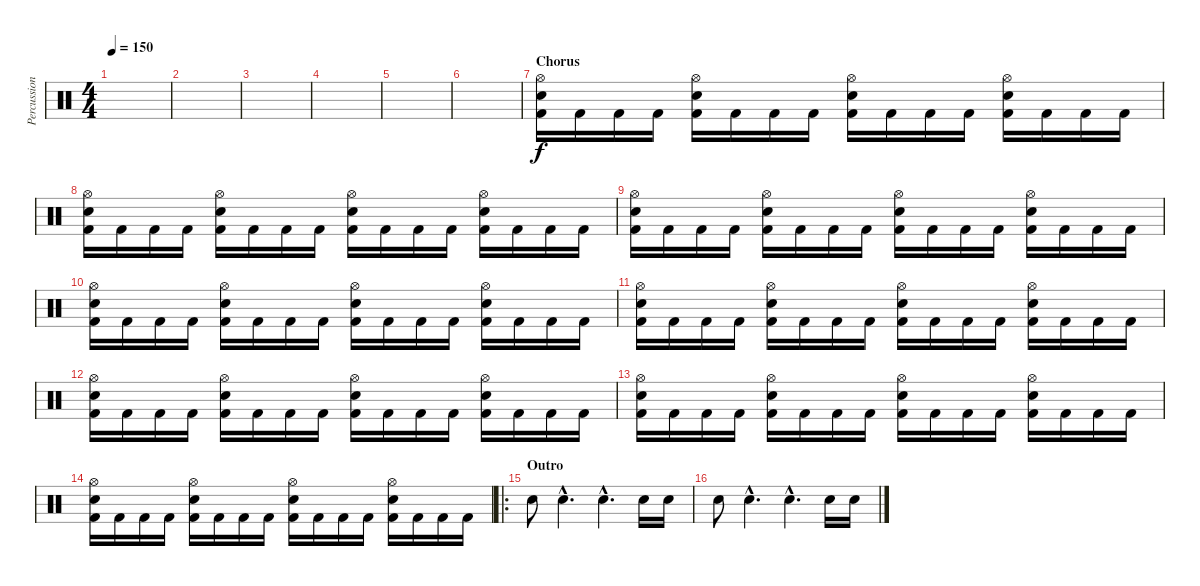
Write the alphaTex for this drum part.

\track ("Percussion" "Percussion") {instrument percussion}
\staff {score}
\articulation defaults
\ts (4 4)
\tempo 150
\clef neutral
\ks c
|
|
|
|
|
|
\section ("" "Chorus")
("Hi-Hat (open)" "Snare (hit) 2" "Kick (hit) 2").16 "Kick (hit) 2".16 "Kick (hit) 2".16 "Kick (hit) 2".16 ("Hi-Hat (open)" "Snare (hit) 2" "Kick (hit) 2").16 "Kick (hit) 2".16 "Kick (hit) 2".16 "Kick (hit) 2".16 ("Hi-Hat (open)" "Snare (hit) 2" "Kick (hit) 2").16 "Kick (hit) 2".16 "Kick (hit) 2".16 "Kick (hit) 2".16 ("Hi-Hat (open)" "Snare (hit) 2" "Kick (hit) 2").16 "Kick (hit) 2".16 "Kick (hit) 2".16 "Kick (hit) 2".16 |
("Hi-Hat (open)" "Snare (hit) 2" "Kick (hit) 2").16 "Kick (hit) 2".16 "Kick (hit) 2".16 "Kick (hit) 2".16 ("Hi-Hat (open)" "Snare (hit) 2" "Kick (hit) 2").16 "Kick (hit) 2".16 "Kick (hit) 2".16 "Kick (hit) 2".16 ("Hi-Hat (open)" "Snare (hit) 2" "Kick (hit) 2").16 "Kick (hit) 2".16 "Kick (hit) 2".16 "Kick (hit) 2".16 ("Hi-Hat (open)" "Snare (hit) 2" "Kick (hit) 2").16 "Kick (hit) 2".16 "Kick (hit) 2".16 "Kick (hit) 2".16 |
("Hi-Hat (open)" "Snare (hit) 2" "Kick (hit) 2").16 "Kick (hit) 2".16 "Kick (hit) 2".16 "Kick (hit) 2".16 ("Hi-Hat (open)" "Snare (hit) 2" "Kick (hit) 2").16 "Kick (hit) 2".16 "Kick (hit) 2".16 "Kick (hit) 2".16 ("Hi-Hat (open)" "Snare (hit) 2" "Kick (hit) 2").16 "Kick (hit) 2".16 "Kick (hit) 2".16 "Kick (hit) 2".16 ("Hi-Hat (open)" "Snare (hit) 2" "Kick (hit) 2").16 "Kick (hit) 2".16 "Kick (hit) 2".16 "Kick (hit) 2".16 |
("Hi-Hat (open)" "Snare (hit) 2" "Kick (hit) 2").16 "Kick (hit) 2".16 "Kick (hit) 2".16 "Kick (hit) 2".16 ("Hi-Hat (open)" "Snare (hit) 2" "Kick (hit) 2").16 "Kick (hit) 2".16 "Kick (hit) 2".16 "Kick (hit) 2".16 ("Hi-Hat (open)" "Snare (hit) 2" "Kick (hit) 2").16 "Kick (hit) 2".16 "Kick (hit) 2".16 "Kick (hit) 2".16 ("Hi-Hat (open)" "Snare (hit) 2" "Kick (hit) 2").16 "Kick (hit) 2".16 "Kick (hit) 2".16 "Kick (hit) 2".16 |
("Hi-Hat (open)" "Snare (hit) 2" "Kick (hit) 2").16 "Kick (hit) 2".16 "Kick (hit) 2".16 "Kick (hit) 2".16 ("Hi-Hat (open)" "Snare (hit) 2" "Kick (hit) 2").16 "Kick (hit) 2".16 "Kick (hit) 2".16 "Kick (hit) 2".16 ("Hi-Hat (open)" "Snare (hit) 2" "Kick (hit) 2").16 "Kick (hit) 2".16 "Kick (hit) 2".16 "Kick (hit) 2".16 ("Hi-Hat (open)" "Snare (hit) 2" "Kick (hit) 2").16 "Kick (hit) 2".16 "Kick (hit) 2".16 "Kick (hit) 2".16 |
("Hi-Hat (open)" "Snare (hit) 2" "Kick (hit) 2").16 "Kick (hit) 2".16 "Kick (hit) 2".16 "Kick (hit) 2".16 ("Hi-Hat (open)" "Snare (hit) 2" "Kick (hit) 2").16 "Kick (hit) 2".16 "Kick (hit) 2".16 "Kick (hit) 2".16 ("Hi-Hat (open)" "Snare (hit) 2" "Kick (hit) 2").16 "Kick (hit) 2".16 "Kick (hit) 2".16 "Kick (hit) 2".16 ("Hi-Hat (open)" "Snare (hit) 2" "Kick (hit) 2").16 "Kick (hit) 2".16 "Kick (hit) 2".16 "Kick (hit) 2".16 |
("Hi-Hat (open)" "Snare (hit) 2" "Kick (hit) 2").16 "Kick (hit) 2".16 "Kick (hit) 2".16 "Kick (hit) 2".16 ("Hi-Hat (open)" "Snare (hit) 2" "Kick (hit) 2").16 "Kick (hit) 2".16 "Kick (hit) 2".16 "Kick (hit) 2".16 ("Hi-Hat (open)" "Snare (hit) 2" "Kick (hit) 2").16 "Kick (hit) 2".16 "Kick (hit) 2".16 "Kick (hit) 2".16 ("Hi-Hat (open)" "Snare (hit) 2" "Kick (hit) 2").16 "Kick (hit) 2".16 "Kick (hit) 2".16 "Kick (hit) 2".16 |
("Hi-Hat (open)" "Snare (hit) 2" "Kick (hit) 2").16 "Kick (hit) 2".16 "Kick (hit) 2".16 "Kick (hit) 2".16 ("Hi-Hat (open)" "Snare (hit) 2" "Kick (hit) 2").16 "Kick (hit) 2".16 "Kick (hit) 2".16 "Kick (hit) 2".16 ("Hi-Hat (open)" "Snare (hit) 2" "Kick (hit) 2").16 "Kick (hit) 2".16 "Kick (hit) 2".16 "Kick (hit) 2".16 ("Hi-Hat (open)" "Snare (hit) 2" "Kick (hit) 2").16 "Kick (hit) 2".16 "Kick (hit) 2".16 "Kick (hit) 2".16 |
\ro
\section ("" "Outro")
"Snare (hit) 2".8 "Snare (hit) 2"{hac}.4{d} "Snare (hit) 2"{hac}.4{d} "Snare (hit) 2".16 "Snare (hit) 2".16 |
"Snare (hit) 2".8 "Snare (hit) 2"{hac}.4{d} "Snare (hit) 2"{hac}.4{d} "Snare (hit) 2".16 "Snare (hit) 2".16
